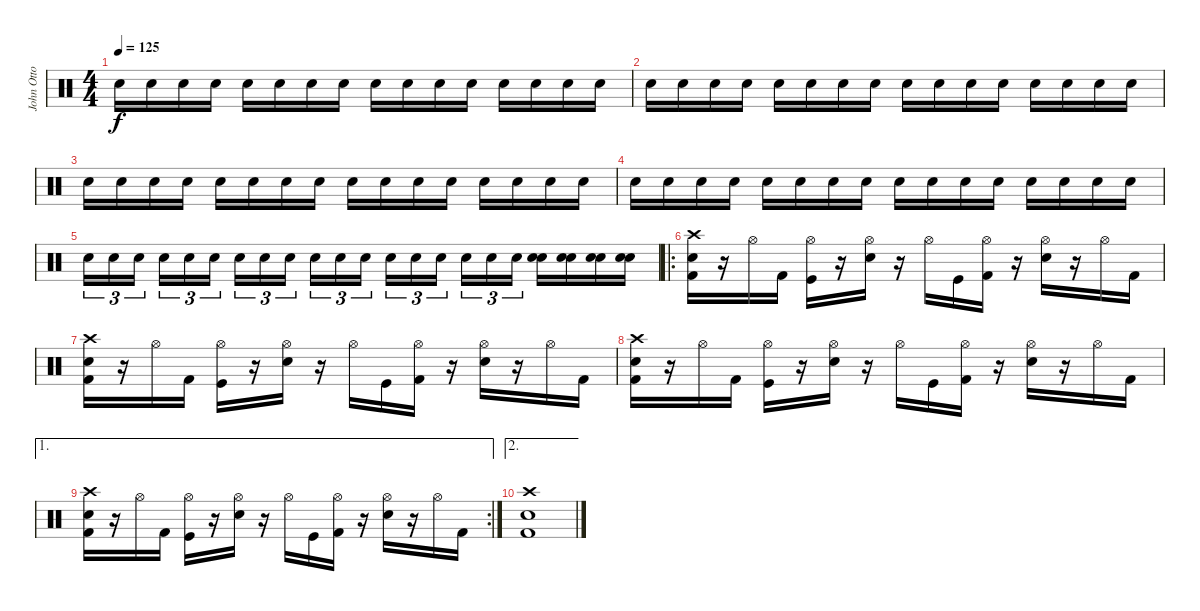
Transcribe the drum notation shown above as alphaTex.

\track ("John Otto" "John Otto") {instrument percussion}
\staff {score}
\articulation defaults
\ts (4 4)
\tempo 125
\clef neutral
\ks c "Electric Snare (hit)".16{dy f} "Electric Snare (hit)".16 "Electric Snare (hit)".16 "Electric Snare (hit)".16 "Electric Snare (hit)".16 "Electric Snare (hit)".16 "Electric Snare (hit)".16 "Electric Snare (hit)".16 "Electric Snare (hit)".16 "Electric Snare (hit)".16 "Electric Snare (hit)".16 "Electric Snare (hit)".16 "Electric Snare (hit)".16 "Electric Snare (hit)".16 "Electric Snare (hit)".16 "Electric Snare (hit)".16
|
"Electric Snare (hit)".16{volume 16} "Electric Snare (hit)".16 "Electric Snare (hit)".16 "Electric Snare (hit)".16 "Electric Snare (hit)".16 "Electric Snare (hit)".16 "Electric Snare (hit)".16 "Electric Snare (hit)".16 "Electric Snare (hit)".16 "Electric Snare (hit)".16 "Electric Snare (hit)".16 "Electric Snare (hit)".16 "Electric Snare (hit)".16 "Electric Snare (hit)".16 "Electric Snare (hit)".16 "Electric Snare (hit)".16 |
"Electric Snare (hit)".16 "Electric Snare (hit)".16 "Electric Snare (hit)".16 "Electric Snare (hit)".16 "Electric Snare (hit)".16 "Electric Snare (hit)".16 "Electric Snare (hit)".16 "Electric Snare (hit)".16 "Electric Snare (hit)".16 "Electric Snare (hit)".16 "Electric Snare (hit)".16 "Electric Snare (hit)".16 "Electric Snare (hit)".16 "Electric Snare (hit)".16 "Electric Snare (hit)".16 "Electric Snare (hit)".16 |
"Electric Snare (hit)".16 "Electric Snare (hit)".16 "Electric Snare (hit)".16 "Electric Snare (hit)".16 "Electric Snare (hit)".16 "Electric Snare (hit)".16 "Electric Snare (hit)".16 "Electric Snare (hit)".16 "Electric Snare (hit)".16 "Electric Snare (hit)".16 "Electric Snare (hit)".16 "Electric Snare (hit)".16 "Electric Snare (hit)".16 "Electric Snare (hit)".16 "Electric Snare (hit)".16 "Electric Snare (hit)".16 |
"Snare (hit) 2".16{tu (3 2)} "Snare (hit) 2".16{tu (3 2)} "Snare (hit) 2".16{tu (3 2) beam splitsecondary} "Snare (hit) 2".16{tu (3 2)} "Snare (hit) 2".16{tu (3 2)} "Snare (hit) 2".16{tu (3 2)} "Snare (hit) 2".16{tu (3 2)} "Snare (hit) 2".16{tu (3 2)} "Snare (hit) 2".16{tu (3 2) beam splitsecondary} "Snare (hit) 2".16{tu (3 2)} "Snare (hit) 2".16{tu (3 2)} "Snare (hit) 2".16{tu (3 2)} "Snare (hit) 2".16{tu (3 2)} "Snare (hit) 2".16{tu (3 2)} "Snare (hit) 2".16{tu (3 2) beam splitsecondary} "Snare (hit) 2".16{tu (3 2)} "Snare (hit) 2".16{tu (3 2)} "Snare (hit) 2".16{tu (3 2)} ("Snare (hit) 2" "Electric Snare (hit)").16 ("Snare (hit) 2" "Electric Snare (hit)").16 ("Snare (hit) 2" "Electric Snare (hit)").16 ("Snare (hit) 2" "Electric Snare (hit)").16 |
\ro
("Crash high (hit)" "Electric Snare (hit)" "Kick (hit) 2").16 r.16 "Hi-Hat (open)".16 "Kick (hit) 2".16 ("Hi-Hat (open)" "Kick (hit)").16 r.16 ("Hi-Hat (open)" "Snare (hit) 2").16 r.16 "Hi-Hat (open)".16 "Kick (hit)".16 ("Hi-Hat (open)" "Kick (hit) 2").16 r.16 ("Hi-Hat (open)" "Snare (hit) 2").16 r.16 "Hi-Hat (open)".16 "Kick (hit) 2".16 |
("Crash high (hit)" "Electric Snare (hit)" "Kick (hit) 2").16 r.16 "Hi-Hat (open)".16 "Kick (hit) 2".16 ("Hi-Hat (open)" "Kick (hit)").16 r.16 ("Hi-Hat (open)" "Snare (hit) 2").16 r.16 "Hi-Hat (open)".16 "Kick (hit)".16 ("Hi-Hat (open)" "Kick (hit) 2").16 r.16 ("Hi-Hat (open)" "Snare (hit) 2").16 r.16 "Hi-Hat (open)".16 "Kick (hit) 2".16 |
("Crash high (hit)" "Electric Snare (hit)" "Kick (hit) 2").16 r.16 "Hi-Hat (open)".16 "Kick (hit) 2".16 ("Hi-Hat (open)" "Kick (hit)").16 r.16 ("Hi-Hat (open)" "Snare (hit) 2").16 r.16 "Hi-Hat (open)".16 "Kick (hit)".16 ("Hi-Hat (open)" "Kick (hit) 2").16 r.16 ("Hi-Hat (open)" "Snare (hit) 2").16 r.16 "Hi-Hat (open)".16 "Kick (hit) 2".16 |
\ae 1
\rc 2
("Crash high (hit)" "Electric Snare (hit)" "Kick (hit) 2").16 r.16 "Hi-Hat (open)".16 "Kick (hit) 2".16 ("Hi-Hat (open)" "Kick (hit)").16 r.16 ("Hi-Hat (open)" "Snare (hit) 2").16 r.16 "Hi-Hat (open)".16 "Kick (hit)".16 ("Hi-Hat (open)" "Kick (hit) 2").16 r.16 ("Hi-Hat (open)" "Snare (hit) 2").16 r.16 "Hi-Hat (open)".16 "Kick (hit) 2".16 |
\ae 2
("Crash high (hit)" "Snare (hit) 2" "Kick (hit) 2").1
